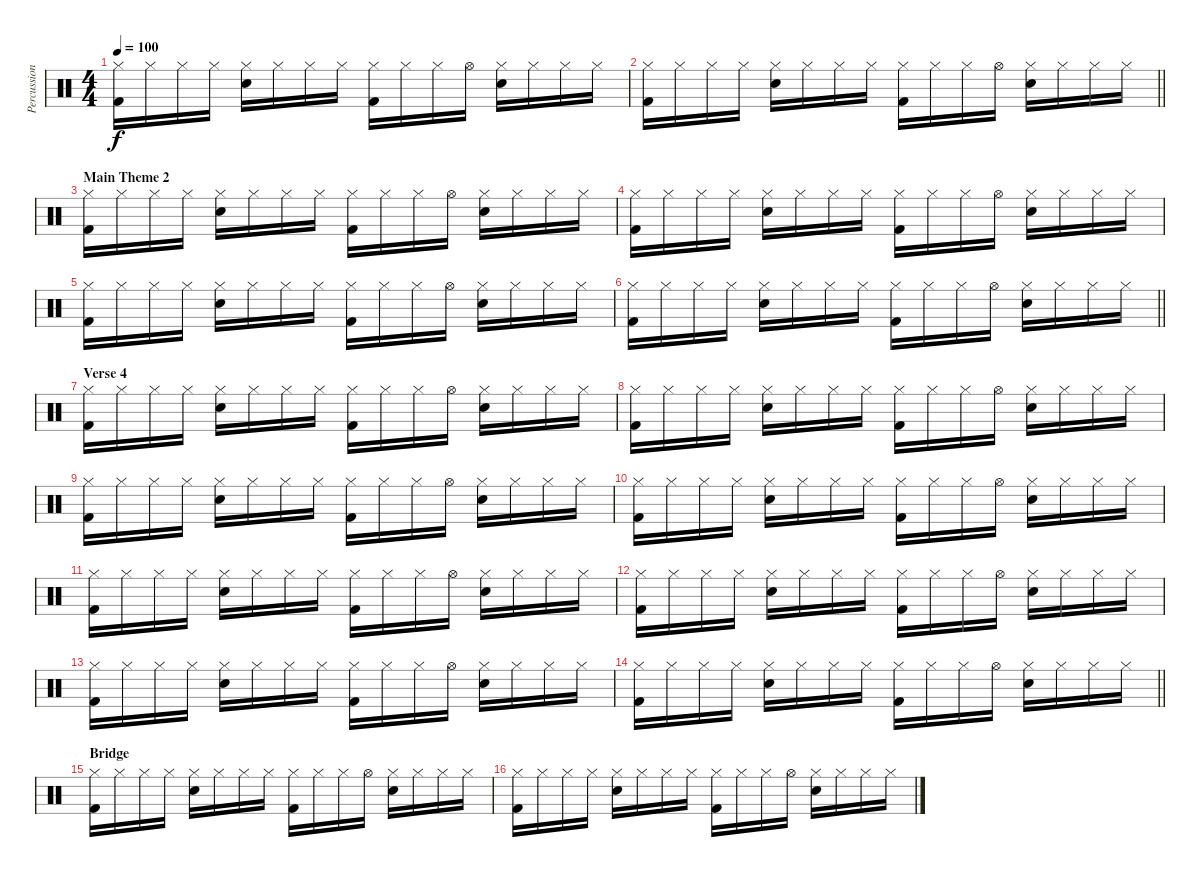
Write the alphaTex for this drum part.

\track ("Percussion" "Percussion") {instrument percussion}
\staff {score}
\articulation defaults
\ts (4 4)
\tempo 100
\clef neutral
\ks c
("Kick (hit) 2" "Hi-Hat (closed)").16{dy f} "Hi-Hat (closed)".16 "Hi-Hat (closed)".16 "Hi-Hat (closed)".16 ("Electric Snare (hit)" "Hi-Hat (closed)").16 "Hi-Hat (closed)".16 "Hi-Hat (closed)".16 "Hi-Hat (closed)".16 ("Kick (hit) 2" "Hi-Hat (closed)").16 "Hi-Hat (closed)".16 "Hi-Hat (closed)".16 "Hi-Hat (open)".16 ("Hi-Hat (closed)" "Electric Snare (hit)").16 "Hi-Hat (closed)".16 "Hi-Hat (closed)".16 "Hi-Hat (closed)".16 |
\barLineRight lightlight
("Kick (hit) 2" "Hi-Hat (closed)").16 "Hi-Hat (closed)".16 "Hi-Hat (closed)".16 "Hi-Hat (closed)".16 ("Electric Snare (hit)" "Hi-Hat (closed)").16 "Hi-Hat (closed)".16 "Hi-Hat (closed)".16 "Hi-Hat (closed)".16 ("Kick (hit) 2" "Hi-Hat (closed)").16 "Hi-Hat (closed)".16 "Hi-Hat (closed)".16 "Hi-Hat (open)".16 ("Hi-Hat (closed)" "Electric Snare (hit)").16 "Hi-Hat (closed)".16 "Hi-Hat (closed)".16 "Hi-Hat (closed)".16 |
\section ("" "Main Theme 2")
("Kick (hit) 2" "Hi-Hat (closed)").16 "Hi-Hat (closed)".16 "Hi-Hat (closed)".16 "Hi-Hat (closed)".16 ("Electric Snare (hit)" "Hi-Hat (closed)").16 "Hi-Hat (closed)".16 "Hi-Hat (closed)".16 "Hi-Hat (closed)".16 ("Kick (hit) 2" "Hi-Hat (closed)").16 "Hi-Hat (closed)".16 "Hi-Hat (closed)".16 "Hi-Hat (open)".16 ("Hi-Hat (closed)" "Electric Snare (hit)").16 "Hi-Hat (closed)".16 "Hi-Hat (closed)".16 "Hi-Hat (closed)".16 |
("Kick (hit) 2" "Hi-Hat (closed)").16 "Hi-Hat (closed)".16 "Hi-Hat (closed)".16 "Hi-Hat (closed)".16 ("Electric Snare (hit)" "Hi-Hat (closed)").16 "Hi-Hat (closed)".16 "Hi-Hat (closed)".16 "Hi-Hat (closed)".16 ("Kick (hit) 2" "Hi-Hat (closed)").16 "Hi-Hat (closed)".16 "Hi-Hat (closed)".16 "Hi-Hat (open)".16 ("Hi-Hat (closed)" "Electric Snare (hit)").16 "Hi-Hat (closed)".16 "Hi-Hat (closed)".16 "Hi-Hat (closed)".16 |
("Kick (hit) 2" "Hi-Hat (closed)").16 "Hi-Hat (closed)".16 "Hi-Hat (closed)".16 "Hi-Hat (closed)".16 ("Electric Snare (hit)" "Hi-Hat (closed)").16 "Hi-Hat (closed)".16 "Hi-Hat (closed)".16 "Hi-Hat (closed)".16 ("Kick (hit) 2" "Hi-Hat (closed)").16 "Hi-Hat (closed)".16 "Hi-Hat (closed)".16 "Hi-Hat (open)".16 ("Hi-Hat (closed)" "Electric Snare (hit)").16 "Hi-Hat (closed)".16 "Hi-Hat (closed)".16 "Hi-Hat (closed)".16 |
\barLineRight lightlight
("Kick (hit) 2" "Hi-Hat (closed)").16 "Hi-Hat (closed)".16 "Hi-Hat (closed)".16 "Hi-Hat (closed)".16 ("Electric Snare (hit)" "Hi-Hat (closed)").16 "Hi-Hat (closed)".16 "Hi-Hat (closed)".16 "Hi-Hat (closed)".16 ("Kick (hit) 2" "Hi-Hat (closed)").16 "Hi-Hat (closed)".16 "Hi-Hat (closed)".16 "Hi-Hat (open)".16 ("Hi-Hat (closed)" "Electric Snare (hit)").16 "Hi-Hat (closed)".16 "Hi-Hat (closed)".16 "Hi-Hat (closed)".16 |
\section ("" "Verse 4")
("Kick (hit) 2" "Hi-Hat (closed)").16 "Hi-Hat (closed)".16 "Hi-Hat (closed)".16 "Hi-Hat (closed)".16 ("Electric Snare (hit)" "Hi-Hat (closed)").16 "Hi-Hat (closed)".16 "Hi-Hat (closed)".16 "Hi-Hat (closed)".16 ("Kick (hit) 2" "Hi-Hat (closed)").16 "Hi-Hat (closed)".16 "Hi-Hat (closed)".16 "Hi-Hat (open)".16 ("Hi-Hat (closed)" "Electric Snare (hit)").16 "Hi-Hat (closed)".16 "Hi-Hat (closed)".16 "Hi-Hat (closed)".16 |
("Kick (hit) 2" "Hi-Hat (closed)").16 "Hi-Hat (closed)".16 "Hi-Hat (closed)".16 "Hi-Hat (closed)".16 ("Electric Snare (hit)" "Hi-Hat (closed)").16 "Hi-Hat (closed)".16 "Hi-Hat (closed)".16 "Hi-Hat (closed)".16 ("Kick (hit) 2" "Hi-Hat (closed)").16 "Hi-Hat (closed)".16 "Hi-Hat (closed)".16 "Hi-Hat (open)".16 ("Hi-Hat (closed)" "Electric Snare (hit)").16 "Hi-Hat (closed)".16 "Hi-Hat (closed)".16 "Hi-Hat (closed)".16 |
("Kick (hit) 2" "Hi-Hat (closed)").16 "Hi-Hat (closed)".16 "Hi-Hat (closed)".16 "Hi-Hat (closed)".16 ("Electric Snare (hit)" "Hi-Hat (closed)").16 "Hi-Hat (closed)".16 "Hi-Hat (closed)".16 "Hi-Hat (closed)".16 ("Kick (hit) 2" "Hi-Hat (closed)").16 "Hi-Hat (closed)".16 "Hi-Hat (closed)".16 "Hi-Hat (open)".16 ("Hi-Hat (closed)" "Electric Snare (hit)").16 "Hi-Hat (closed)".16 "Hi-Hat (closed)".16 "Hi-Hat (closed)".16 |
("Kick (hit) 2" "Hi-Hat (closed)").16 "Hi-Hat (closed)".16 "Hi-Hat (closed)".16 "Hi-Hat (closed)".16 ("Electric Snare (hit)" "Hi-Hat (closed)").16 "Hi-Hat (closed)".16 "Hi-Hat (closed)".16 "Hi-Hat (closed)".16 ("Kick (hit) 2" "Hi-Hat (closed)").16 "Hi-Hat (closed)".16 "Hi-Hat (closed)".16 "Hi-Hat (open)".16 ("Hi-Hat (closed)" "Electric Snare (hit)").16 "Hi-Hat (closed)".16 "Hi-Hat (closed)".16 "Hi-Hat (closed)".16 |
("Kick (hit) 2" "Hi-Hat (closed)").16 "Hi-Hat (closed)".16 "Hi-Hat (closed)".16 "Hi-Hat (closed)".16 ("Electric Snare (hit)" "Hi-Hat (closed)").16 "Hi-Hat (closed)".16 "Hi-Hat (closed)".16 "Hi-Hat (closed)".16 ("Kick (hit) 2" "Hi-Hat (closed)").16 "Hi-Hat (closed)".16 "Hi-Hat (closed)".16 "Hi-Hat (open)".16 ("Hi-Hat (closed)" "Electric Snare (hit)").16 "Hi-Hat (closed)".16 "Hi-Hat (closed)".16 "Hi-Hat (closed)".16 |
("Kick (hit) 2" "Hi-Hat (closed)").16 "Hi-Hat (closed)".16 "Hi-Hat (closed)".16 "Hi-Hat (closed)".16 ("Electric Snare (hit)" "Hi-Hat (closed)").16 "Hi-Hat (closed)".16 "Hi-Hat (closed)".16 "Hi-Hat (closed)".16 ("Kick (hit) 2" "Hi-Hat (closed)").16 "Hi-Hat (closed)".16 "Hi-Hat (closed)".16 "Hi-Hat (open)".16 ("Hi-Hat (closed)" "Electric Snare (hit)").16 "Hi-Hat (closed)".16 "Hi-Hat (closed)".16 "Hi-Hat (closed)".16 |
("Kick (hit) 2" "Hi-Hat (closed)").16 "Hi-Hat (closed)".16 "Hi-Hat (closed)".16 "Hi-Hat (closed)".16 ("Electric Snare (hit)" "Hi-Hat (closed)").16 "Hi-Hat (closed)".16 "Hi-Hat (closed)".16 "Hi-Hat (closed)".16 ("Kick (hit) 2" "Hi-Hat (closed)").16 "Hi-Hat (closed)".16 "Hi-Hat (closed)".16 "Hi-Hat (open)".16 ("Hi-Hat (closed)" "Electric Snare (hit)").16 "Hi-Hat (closed)".16 "Hi-Hat (closed)".16 "Hi-Hat (closed)".16 |
\barLineRight lightlight
("Kick (hit) 2" "Hi-Hat (closed)").16 "Hi-Hat (closed)".16 "Hi-Hat (closed)".16 "Hi-Hat (closed)".16 ("Electric Snare (hit)" "Hi-Hat (closed)").16 "Hi-Hat (closed)".16 "Hi-Hat (closed)".16 "Hi-Hat (closed)".16 ("Kick (hit) 2" "Hi-Hat (closed)").16 "Hi-Hat (closed)".16 "Hi-Hat (closed)".16 "Hi-Hat (open)".16 ("Hi-Hat (closed)" "Electric Snare (hit)").16 "Hi-Hat (closed)".16 "Hi-Hat (closed)".16 "Hi-Hat (closed)".16 |
\section ("" "Bridge")
("Kick (hit) 2" "Hi-Hat (closed)").16 "Hi-Hat (closed)".16 "Hi-Hat (closed)".16 "Hi-Hat (closed)".16 ("Electric Snare (hit)" "Hi-Hat (closed)").16 "Hi-Hat (closed)".16 "Hi-Hat (closed)".16 "Hi-Hat (closed)".16 ("Kick (hit) 2" "Hi-Hat (closed)").16 "Hi-Hat (closed)".16 "Hi-Hat (closed)".16 "Hi-Hat (open)".16 ("Hi-Hat (closed)" "Electric Snare (hit)").16 "Hi-Hat (closed)".16 "Hi-Hat (closed)".16 "Hi-Hat (closed)".16 |
("Kick (hit) 2" "Hi-Hat (closed)").16 "Hi-Hat (closed)".16 "Hi-Hat (closed)".16 "Hi-Hat (closed)".16 ("Electric Snare (hit)" "Hi-Hat (closed)").16 "Hi-Hat (closed)".16 "Hi-Hat (closed)".16 "Hi-Hat (closed)".16 ("Kick (hit) 2" "Hi-Hat (closed)").16 "Hi-Hat (closed)".16 "Hi-Hat (closed)".16 "Hi-Hat (open)".16 ("Hi-Hat (closed)" "Electric Snare (hit)").16 "Hi-Hat (closed)".16 "Hi-Hat (closed)".16 "Hi-Hat (closed)".16
